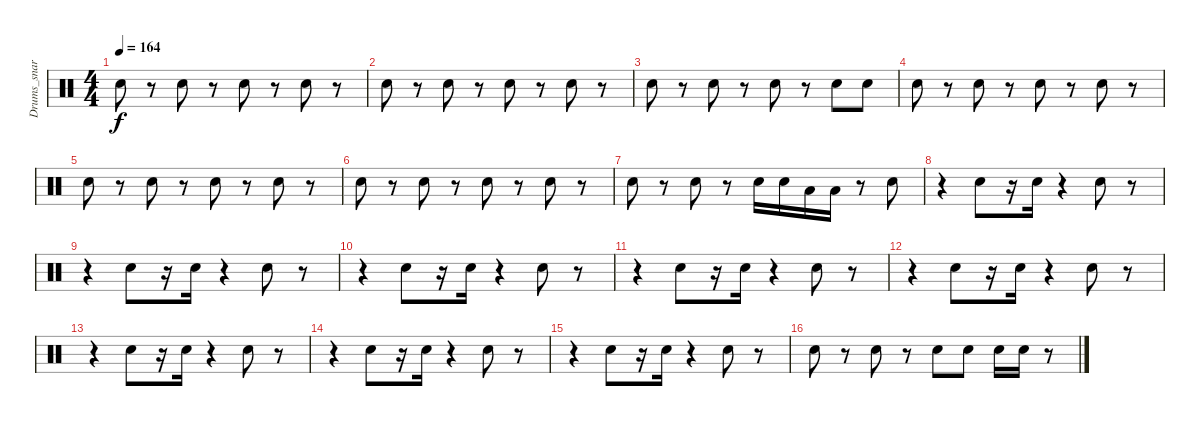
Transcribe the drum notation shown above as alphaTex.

\track ("Drums_snare&tom" "Drums_snar") {instrument percussion}
\staff {score}
\articulation defaults
\ts (4 4)
\tempo 164
\clef neutral
\ks c "Snare (hit) 2".8{dy f}
r.8 "Snare (hit) 2".8 r.8 "Snare (hit) 2".8 r.8 "Snare (hit) 2".8 r.8 |
"Snare (hit) 2".8 r.8 "Snare (hit) 2".8 r.8 "Snare (hit) 2".8 r.8 "Snare (hit) 2".8 r.8 |
"Snare (hit) 2".8 r.8 "Snare (hit) 2".8 r.8 "Snare (hit) 2".8 r.8 "Snare (hit) 2".8 "Snare (hit) 2".8 |
"Snare (hit) 2".8 r.8 "Snare (hit) 2".8 r.8 "Snare (hit) 2".8 r.8 "Snare (hit) 2".8 r.8 |
"Snare (hit) 2".8 r.8 "Snare (hit) 2".8 r.8 "Snare (hit) 2".8 r.8 "Snare (hit) 2".8 r.8 |
"Snare (hit) 2".8 r.8 "Snare (hit) 2".8 r.8 "Snare (hit) 2".8 r.8 "Snare (hit) 2".8 r.8 |
"Snare (hit) 2".8 r.8 "Snare (hit) 2".8 r.8 "Snare (hit) 2".16 "Snare (hit) 2".16 "Low Tom (hit)".16 "Low Tom (hit)".16 r.8 "Snare (hit) 2".8 |
r.4 "Snare (hit) 2".8 r.16 "Snare (hit) 2".16 r.4 "Snare (hit) 2".8 r.8 |
r.4 "Snare (hit) 2".8 r.16 "Snare (hit) 2".16 r.4 "Snare (hit) 2".8 r.8 |
r.4 "Snare (hit) 2".8 r.16 "Snare (hit) 2".16 r.4 "Snare (hit) 2".8 r.8 |
r.4 "Snare (hit) 2".8 r.16 "Snare (hit) 2".16 r.4 "Snare (hit) 2".8 r.8 |
r.4 "Snare (hit) 2".8 r.16 "Snare (hit) 2".16 r.4 "Snare (hit) 2".8 r.8 |
r.4 "Snare (hit) 2".8 r.16 "Snare (hit) 2".16 r.4 "Snare (hit) 2".8 r.8 |
r.4 "Snare (hit) 2".8 r.16 "Snare (hit) 2".16 r.4 "Snare (hit) 2".8 r.8 |
r.4 "Snare (hit) 2".8 r.16 "Snare (hit) 2".16 r.4 "Snare (hit) 2".8 r.8 |
"Snare (hit) 2".8 r.8 "Snare (hit) 2".8 r.8 "Snare (hit) 2".8 "Snare (hit) 2".8 "Snare (hit) 2".16 "Snare (hit) 2".16 r.8
